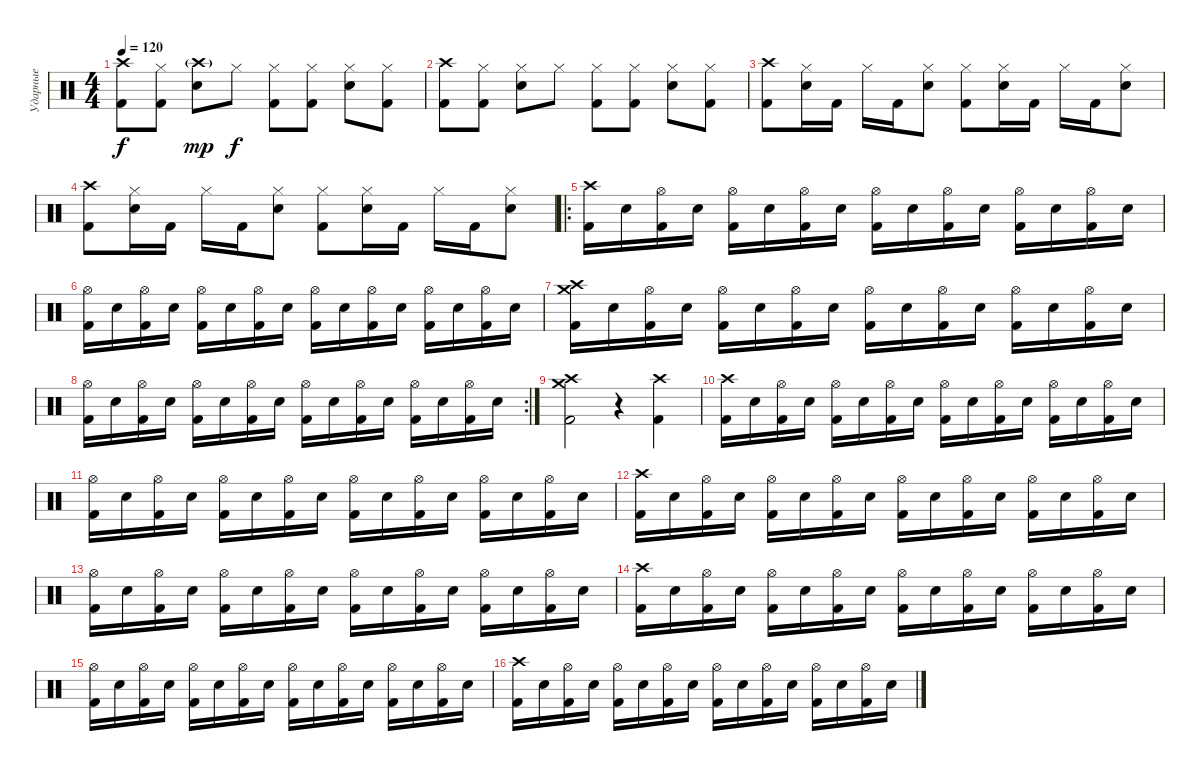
\track ("Ударные" "Ударные") {instrument percussion}
\staff {score}
\articulation defaults
\ts (4 4)
\tempo 120
\clef neutral
\ks c
("Kick (hit) 2" "Crash high (hit)").8{dy f} ("Kick (hit) 2" "Hi-Hat (closed)").8 ("Electric Snare (hit)" "Crash high (hit)"{g}).8{dy mp} "Hi-Hat (closed)".8{dy f} ("Kick (hit) 2" "Hi-Hat (closed)").8 ("Kick (hit) 2" "Hi-Hat (closed)").8 ("Electric Snare (hit)" "Hi-Hat (closed)").8 ("Kick (hit) 2" "Hi-Hat (closed)").8 |
("Kick (hit) 2" "Crash high (hit)").8 ("Kick (hit) 2" "Hi-Hat (closed)").8 ("Electric Snare (hit)" "Hi-Hat (closed)").8 "Hi-Hat (closed)".8 ("Kick (hit) 2" "Hi-Hat (closed)").8 ("Kick (hit) 2" "Hi-Hat (closed)").8 ("Electric Snare (hit)" "Hi-Hat (closed)").8 ("Kick (hit) 2" "Hi-Hat (closed)").8 |
("Kick (hit) 2" "Crash high (hit)").8 ("Electric Snare (hit)" "Hi-Hat (closed)").16 "Kick (hit) 2".16 "Hi-Hat (closed)".16 "Kick (hit) 2".16 ("Electric Snare (hit)" "Hi-Hat (closed)").8 ("Kick (hit) 2" "Hi-Hat (closed)").8 ("Electric Snare (hit)" "Hi-Hat (closed)").16 "Kick (hit) 2".16 "Hi-Hat (closed)".16 "Kick (hit) 2".16 ("Electric Snare (hit)" "Hi-Hat (closed)").8 |
("Kick (hit) 2" "Crash high (hit)").8 ("Electric Snare (hit)" "Hi-Hat (closed)").16 "Kick (hit) 2".16 "Hi-Hat (closed)".16 "Kick (hit) 2".16 ("Electric Snare (hit)" "Hi-Hat (closed)").8 ("Kick (hit) 2" "Hi-Hat (closed)").8 ("Electric Snare (hit)" "Hi-Hat (closed)").16 "Kick (hit) 2".16 "Hi-Hat (closed)".16 "Kick (hit) 2".16 ("Electric Snare (hit)" "Hi-Hat (closed)").8 |
\ro
("Kick (hit) 2" "Crash high (hit)").16 "Electric Snare (hit)".16 ("Kick (hit) 2" "Hi-Hat (open)").16 "Electric Snare (hit)".16 ("Kick (hit) 2" "Hi-Hat (open)").16 "Electric Snare (hit)".16 ("Kick (hit) 2" "Hi-Hat (open)").16 "Electric Snare (hit)".16 ("Kick (hit) 2" "Hi-Hat (open)").16 "Electric Snare (hit)".16 ("Kick (hit) 2" "Hi-Hat (open)").16 "Electric Snare (hit)".16 ("Kick (hit) 2" "Hi-Hat (open)").16 "Electric Snare (hit)".16 ("Kick (hit) 2" "Hi-Hat (open)").16 "Electric Snare (hit)".16 |
("Kick (hit) 2" "Hi-Hat (open)").16 "Electric Snare (hit)".16 ("Kick (hit) 2" "Hi-Hat (open)").16 "Electric Snare (hit)".16 ("Kick (hit) 2" "Hi-Hat (open)").16 "Electric Snare (hit)".16 ("Kick (hit) 2" "Hi-Hat (open)").16 "Electric Snare (hit)".16 ("Kick (hit) 2" "Hi-Hat (open)").16 "Electric Snare (hit)".16 ("Kick (hit) 2" "Hi-Hat (open)").16 "Electric Snare (hit)".16 ("Kick (hit) 2" "Hi-Hat (open)").16 "Electric Snare (hit)".16 ("Kick (hit) 2" "Hi-Hat (open)").16 "Electric Snare (hit)".16 |
("Kick (hit) 2" "Crash medium (hit)" "Crash high (hit)").16 "Electric Snare (hit)".16 ("Kick (hit) 2" "Hi-Hat (open)").16 "Electric Snare (hit)".16 ("Kick (hit) 2" "Hi-Hat (open)").16 "Electric Snare (hit)".16 ("Kick (hit) 2" "Hi-Hat (open)").16 "Electric Snare (hit)".16 ("Kick (hit) 2" "Hi-Hat (open)").16 "Electric Snare (hit)".16 ("Kick (hit) 2" "Hi-Hat (open)").16 "Electric Snare (hit)".16 ("Kick (hit) 2" "Hi-Hat (open)").16 "Electric Snare (hit)".16 ("Kick (hit) 2" "Hi-Hat (open)").16 "Electric Snare (hit)".16 |
\rc 2
("Kick (hit) 2" "Hi-Hat (open)").16 "Electric Snare (hit)".16 ("Kick (hit) 2" "Hi-Hat (open)").16 "Electric Snare (hit)".16 ("Kick (hit) 2" "Hi-Hat (open)").16 "Electric Snare (hit)".16 ("Kick (hit) 2" "Hi-Hat (open)").16 "Electric Snare (hit)".16 ("Kick (hit) 2" "Hi-Hat (open)").16 "Electric Snare (hit)".16 ("Kick (hit) 2" "Hi-Hat (open)").16 "Electric Snare (hit)".16 ("Kick (hit) 2" "Hi-Hat (open)").16 "Electric Snare (hit)".16 ("Kick (hit) 2" "Hi-Hat (open)").16 "Electric Snare (hit)".16 |
("Kick (hit) 2" "Crash medium (hit)" "Crash high (hit)").2 r.4 ("Kick (hit) 2" "Crash high (hit)").4 |
("Kick (hit) 2" "Crash high (hit)").16 "Electric Snare (hit)".16 ("Kick (hit) 2" "Hi-Hat (open)").16 "Electric Snare (hit)".16 ("Kick (hit) 2" "Hi-Hat (open)").16 "Electric Snare (hit)".16 ("Kick (hit) 2" "Hi-Hat (open)").16 "Electric Snare (hit)".16 ("Kick (hit) 2" "Hi-Hat (open)").16 "Electric Snare (hit)".16 ("Kick (hit) 2" "Hi-Hat (open)").16 "Electric Snare (hit)".16 ("Kick (hit) 2" "Hi-Hat (open)").16 "Electric Snare (hit)".16 ("Kick (hit) 2" "Hi-Hat (open)").16 "Electric Snare (hit)".16 |
("Kick (hit) 2" "Hi-Hat (open)").16 "Electric Snare (hit)".16 ("Kick (hit) 2" "Hi-Hat (open)").16 "Electric Snare (hit)".16 ("Kick (hit) 2" "Hi-Hat (open)").16 "Electric Snare (hit)".16 ("Kick (hit) 2" "Hi-Hat (open)").16 "Electric Snare (hit)".16 ("Kick (hit) 2" "Hi-Hat (open)").16 "Electric Snare (hit)".16 ("Kick (hit) 2" "Hi-Hat (open)").16 "Electric Snare (hit)".16 ("Kick (hit) 2" "Hi-Hat (open)").16 "Electric Snare (hit)".16 ("Kick (hit) 2" "Hi-Hat (open)").16 "Electric Snare (hit)".16 |
("Kick (hit) 2" "Crash high (hit)").16 "Electric Snare (hit)".16 ("Kick (hit) 2" "Hi-Hat (open)").16 "Electric Snare (hit)".16 ("Kick (hit) 2" "Hi-Hat (open)").16 "Electric Snare (hit)".16 ("Kick (hit) 2" "Hi-Hat (open)").16 "Electric Snare (hit)".16 ("Kick (hit) 2" "Hi-Hat (open)").16 "Electric Snare (hit)".16 ("Kick (hit) 2" "Hi-Hat (open)").16 "Electric Snare (hit)".16 ("Kick (hit) 2" "Hi-Hat (open)").16 "Electric Snare (hit)".16 ("Kick (hit) 2" "Hi-Hat (open)").16 "Electric Snare (hit)".16 |
("Kick (hit) 2" "Hi-Hat (open)").16 "Electric Snare (hit)".16 ("Kick (hit) 2" "Hi-Hat (open)").16 "Electric Snare (hit)".16 ("Kick (hit) 2" "Hi-Hat (open)").16 "Electric Snare (hit)".16 ("Kick (hit) 2" "Hi-Hat (open)").16 "Electric Snare (hit)".16 ("Kick (hit) 2" "Hi-Hat (open)").16 "Electric Snare (hit)".16 ("Kick (hit) 2" "Hi-Hat (open)").16 "Electric Snare (hit)".16 ("Kick (hit) 2" "Hi-Hat (open)").16 "Electric Snare (hit)".16 ("Kick (hit) 2" "Hi-Hat (open)").16 "Electric Snare (hit)".16 |
("Kick (hit) 2" "Crash high (hit)").16 "Electric Snare (hit)".16 ("Kick (hit) 2" "Hi-Hat (open)").16 "Electric Snare (hit)".16 ("Kick (hit) 2" "Hi-Hat (open)").16 "Electric Snare (hit)".16 ("Kick (hit) 2" "Hi-Hat (open)").16 "Electric Snare (hit)".16 ("Kick (hit) 2" "Hi-Hat (open)").16 "Electric Snare (hit)".16 ("Kick (hit) 2" "Hi-Hat (open)").16 "Electric Snare (hit)".16 ("Kick (hit) 2" "Hi-Hat (open)").16 "Electric Snare (hit)".16 ("Kick (hit) 2" "Hi-Hat (open)").16 "Electric Snare (hit)".16 |
("Kick (hit) 2" "Hi-Hat (open)").16 "Electric Snare (hit)".16 ("Kick (hit) 2" "Hi-Hat (open)").16 "Electric Snare (hit)".16 ("Kick (hit) 2" "Hi-Hat (open)").16 "Electric Snare (hit)".16 ("Kick (hit) 2" "Hi-Hat (open)").16 "Electric Snare (hit)".16 ("Kick (hit) 2" "Hi-Hat (open)").16 "Electric Snare (hit)".16 ("Kick (hit) 2" "Hi-Hat (open)").16 "Electric Snare (hit)".16 ("Kick (hit) 2" "Hi-Hat (open)").16 "Electric Snare (hit)".16 ("Kick (hit) 2" "Hi-Hat (open)").16 "Electric Snare (hit)".16 |
("Kick (hit) 2" "Crash high (hit)").16 "Electric Snare (hit)".16 ("Kick (hit) 2" "Hi-Hat (open)").16 "Electric Snare (hit)".16 ("Kick (hit) 2" "Hi-Hat (open)").16 "Electric Snare (hit)".16 ("Kick (hit) 2" "Hi-Hat (open)").16 "Electric Snare (hit)".16 ("Kick (hit) 2" "Hi-Hat (open)").16 "Electric Snare (hit)".16 ("Kick (hit) 2" "Hi-Hat (open)").16 "Electric Snare (hit)".16 ("Kick (hit) 2" "Hi-Hat (open)").16 "Electric Snare (hit)".16 ("Kick (hit) 2" "Hi-Hat (open)").16 "Electric Snare (hit)".16
